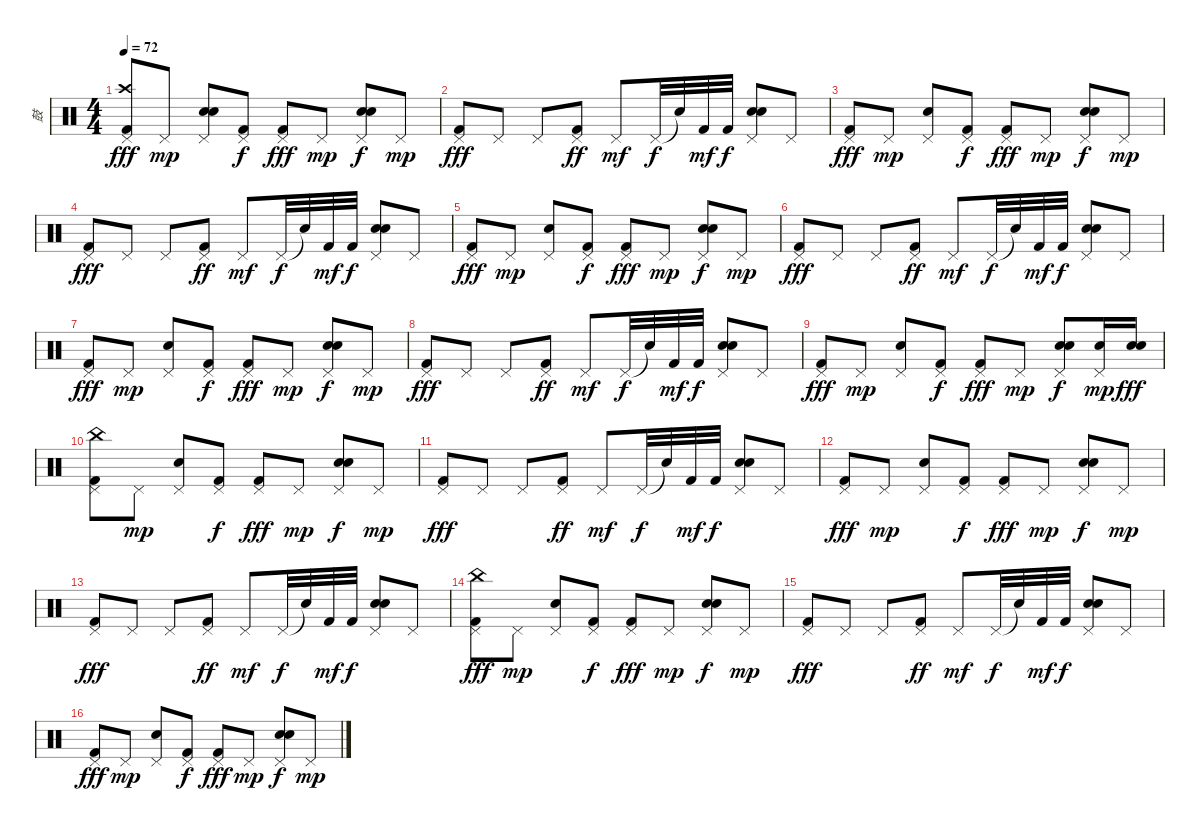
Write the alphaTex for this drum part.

\track ("鼓" "鼓") {instrument percussion}
\staff {score}
\articulation defaults
\ts (4 4)
\tempo 72
\clef neutral
\ks c
("Kick (hit) 2" "Crash high (hit)" "Pedal Hi-Hat (hit)").8{dy fff} "Pedal Hi-Hat (hit)".8{dy mp} ("Hand Clap (hit)" "Electric Snare (hit)" "Pedal Hi-Hat (hit)").8 ("Kick (hit) 2" "Pedal Hi-Hat (hit)").8{dy f} ("Kick (hit) 2" "Pedal Hi-Hat (hit)").8{dy fff} "Pedal Hi-Hat (hit)".8{dy mp} ("Hand Clap (hit)" "Electric Snare (hit)" "Pedal Hi-Hat (hit)").8{dy f} "Pedal Hi-Hat (hit)".8{dy mp} |
("Kick (hit) 2" "Pedal Hi-Hat (hit)").8{dy fff} "Pedal Hi-Hat (hit)".8 "Pedal Hi-Hat (hit)".8 ("Kick (hit) 2" "Pedal Hi-Hat (hit)").8{dy ff} "Pedal Hi-Hat (hit)".8{dy mf} "Pedal Hi-Hat (hit)".32{dy f} "Snare (hit)"{t}.32 "Kick (hit) 2".32{dy mf} "Kick (hit) 2".32{dy f} ("Hand Clap (hit)" "Electric Snare (hit)" "Pedal Hi-Hat (hit)").8 "Pedal Hi-Hat (hit)".8 |
("Kick (hit) 2" "Pedal Hi-Hat (hit)").8{dy fff} "Pedal Hi-Hat (hit)".8{dy mp} ("Electric Snare (hit)" "Pedal Hi-Hat (hit)").8 ("Kick (hit) 2" "Pedal Hi-Hat (hit)").8{dy f} ("Kick (hit) 2" "Pedal Hi-Hat (hit)").8{dy fff} "Pedal Hi-Hat (hit)".8{dy mp} ("Hand Clap (hit)" "Electric Snare (hit)" "Pedal Hi-Hat (hit)").8{dy f} "Pedal Hi-Hat (hit)".8{dy mp} |
("Kick (hit) 2" "Pedal Hi-Hat (hit)").8{dy fff} "Pedal Hi-Hat (hit)".8 "Pedal Hi-Hat (hit)".8 ("Kick (hit) 2" "Pedal Hi-Hat (hit)").8{dy ff} "Pedal Hi-Hat (hit)".8{dy mf} "Pedal Hi-Hat (hit)".32{dy f} "Snare (hit)"{t}.32 "Kick (hit) 2".32{dy mf} "Kick (hit) 2".32{dy f} ("Hand Clap (hit)" "Electric Snare (hit)" "Pedal Hi-Hat (hit)").8 "Pedal Hi-Hat (hit)".8 |
("Kick (hit) 2" "Pedal Hi-Hat (hit)").8{dy fff} "Pedal Hi-Hat (hit)".8{dy mp} ("Electric Snare (hit)" "Pedal Hi-Hat (hit)").8 ("Kick (hit) 2" "Pedal Hi-Hat (hit)").8{dy f} ("Kick (hit) 2" "Pedal Hi-Hat (hit)").8{dy fff} "Pedal Hi-Hat (hit)".8{dy mp} ("Hand Clap (hit)" "Electric Snare (hit)" "Pedal Hi-Hat (hit)").8{dy f} "Pedal Hi-Hat (hit)".8{dy mp} |
("Kick (hit) 2" "Pedal Hi-Hat (hit)").8{dy fff} "Pedal Hi-Hat (hit)".8 "Pedal Hi-Hat (hit)".8 ("Kick (hit) 2" "Pedal Hi-Hat (hit)").8{dy ff} "Pedal Hi-Hat (hit)".8{dy mf} "Pedal Hi-Hat (hit)".32{dy f} "Snare (hit)"{t}.32 "Kick (hit) 2".32{dy mf} "Kick (hit) 2".32{dy f} ("Hand Clap (hit)" "Electric Snare (hit)" "Pedal Hi-Hat (hit)").8 "Pedal Hi-Hat (hit)".8 |
("Kick (hit) 2" "Pedal Hi-Hat (hit)").8{dy fff} "Pedal Hi-Hat (hit)".8{dy mp} ("Electric Snare (hit)" "Pedal Hi-Hat (hit)").8 ("Kick (hit) 2" "Pedal Hi-Hat (hit)").8{dy f} ("Kick (hit) 2" "Pedal Hi-Hat (hit)").8{dy fff} "Pedal Hi-Hat (hit)".8{dy mp} ("Hand Clap (hit)" "Electric Snare (hit)" "Pedal Hi-Hat (hit)").8{dy f} "Pedal Hi-Hat (hit)".8{dy mp} |
("Kick (hit) 2" "Pedal Hi-Hat (hit)").8{dy fff} "Pedal Hi-Hat (hit)".8 "Pedal Hi-Hat (hit)".8 ("Kick (hit) 2" "Pedal Hi-Hat (hit)").8{dy ff} "Pedal Hi-Hat (hit)".8{dy mf} "Pedal Hi-Hat (hit)".32{dy f} "Snare (hit)"{t}.32 "Kick (hit) 2".32{dy mf} "Kick (hit) 2".32{dy f} ("Hand Clap (hit)" "Electric Snare (hit)" "Pedal Hi-Hat (hit)").8 "Pedal Hi-Hat (hit)".8 |
("Kick (hit) 2" "Pedal Hi-Hat (hit)").8{dy fff} "Pedal Hi-Hat (hit)".8{dy mp} ("Electric Snare (hit)" "Pedal Hi-Hat (hit)").8 ("Kick (hit) 2" "Pedal Hi-Hat (hit)").8{dy f} ("Kick (hit) 2" "Pedal Hi-Hat (hit)").8{dy fff} "Pedal Hi-Hat (hit)".8{dy mp} ("Hand Clap (hit)" "Electric Snare (hit)" "Pedal Hi-Hat (hit)").8{dy f} ("Electric Snare (hit)" "Pedal Hi-Hat (hit)").16{dy mp} ("Hand Clap (hit)" "Electric Snare (hit)").16{dy fff} |
("China (hit)" "Kick (hit) 2" "Pedal Hi-Hat (hit)").8 "Pedal Hi-Hat (hit)".8{dy mp} ("Electric Snare (hit)" "Pedal Hi-Hat (hit)").8 ("Kick (hit) 2" "Pedal Hi-Hat (hit)").8{dy f} ("Kick (hit) 2" "Pedal Hi-Hat (hit)").8{dy fff} "Pedal Hi-Hat (hit)".8{dy mp} ("Hand Clap (hit)" "Electric Snare (hit)" "Pedal Hi-Hat (hit)").8{dy f} "Pedal Hi-Hat (hit)".8{dy mp} |
("Kick (hit) 2" "Pedal Hi-Hat (hit)").8{dy fff} "Pedal Hi-Hat (hit)".8 "Pedal Hi-Hat (hit)".8 ("Kick (hit) 2" "Pedal Hi-Hat (hit)").8{dy ff} "Pedal Hi-Hat (hit)".8{dy mf} "Pedal Hi-Hat (hit)".32{dy f} "Snare (hit)"{t}.32 "Kick (hit) 2".32{dy mf} "Kick (hit) 2".32{dy f} ("Hand Clap (hit)" "Electric Snare (hit)" "Pedal Hi-Hat (hit)").8 "Pedal Hi-Hat (hit)".8 |
("Kick (hit) 2" "Pedal Hi-Hat (hit)").8{dy fff} "Pedal Hi-Hat (hit)".8{dy mp} ("Electric Snare (hit)" "Pedal Hi-Hat (hit)").8 ("Kick (hit) 2" "Pedal Hi-Hat (hit)").8{dy f} ("Kick (hit) 2" "Pedal Hi-Hat (hit)").8{dy fff} "Pedal Hi-Hat (hit)".8{dy mp} ("Hand Clap (hit)" "Electric Snare (hit)" "Pedal Hi-Hat (hit)").8{dy f} "Pedal Hi-Hat (hit)".8{dy mp} |
("Kick (hit) 2" "Pedal Hi-Hat (hit)").8{dy fff} "Pedal Hi-Hat (hit)".8 "Pedal Hi-Hat (hit)".8 ("Kick (hit) 2" "Pedal Hi-Hat (hit)").8{dy ff} "Pedal Hi-Hat (hit)".8{dy mf} "Pedal Hi-Hat (hit)".32{dy f} "Snare (hit)"{t}.32 "Kick (hit) 2".32{dy mf} "Kick (hit) 2".32{dy f} ("Hand Clap (hit)" "Electric Snare (hit)" "Pedal Hi-Hat (hit)").8 "Pedal Hi-Hat (hit)".8 |
("China (hit)" "Kick (hit) 2" "Pedal Hi-Hat (hit)").8{dy fff} "Pedal Hi-Hat (hit)".8{dy mp} ("Electric Snare (hit)" "Pedal Hi-Hat (hit)").8 ("Kick (hit) 2" "Pedal Hi-Hat (hit)").8{dy f} ("Kick (hit) 2" "Pedal Hi-Hat (hit)").8{dy fff} "Pedal Hi-Hat (hit)".8{dy mp} ("Hand Clap (hit)" "Electric Snare (hit)" "Pedal Hi-Hat (hit)").8{dy f} "Pedal Hi-Hat (hit)".8{dy mp} |
("Kick (hit) 2" "Pedal Hi-Hat (hit)").8{dy fff} "Pedal Hi-Hat (hit)".8 "Pedal Hi-Hat (hit)".8 ("Kick (hit) 2" "Pedal Hi-Hat (hit)").8{dy ff} "Pedal Hi-Hat (hit)".8{dy mf} "Pedal Hi-Hat (hit)".32{dy f} "Snare (hit)"{t}.32 "Kick (hit) 2".32{dy mf} "Kick (hit) 2".32{dy f} ("Hand Clap (hit)" "Electric Snare (hit)" "Pedal Hi-Hat (hit)").8 "Pedal Hi-Hat (hit)".8 |
("Kick (hit) 2" "Pedal Hi-Hat (hit)").8{dy fff} "Pedal Hi-Hat (hit)".8{dy mp} ("Electric Snare (hit)" "Pedal Hi-Hat (hit)").8 ("Kick (hit) 2" "Pedal Hi-Hat (hit)").8{dy f} ("Kick (hit) 2" "Pedal Hi-Hat (hit)").8{dy fff} "Pedal Hi-Hat (hit)".8{dy mp} ("Hand Clap (hit)" "Electric Snare (hit)" "Pedal Hi-Hat (hit)").8{dy f} "Pedal Hi-Hat (hit)".8{dy mp}
